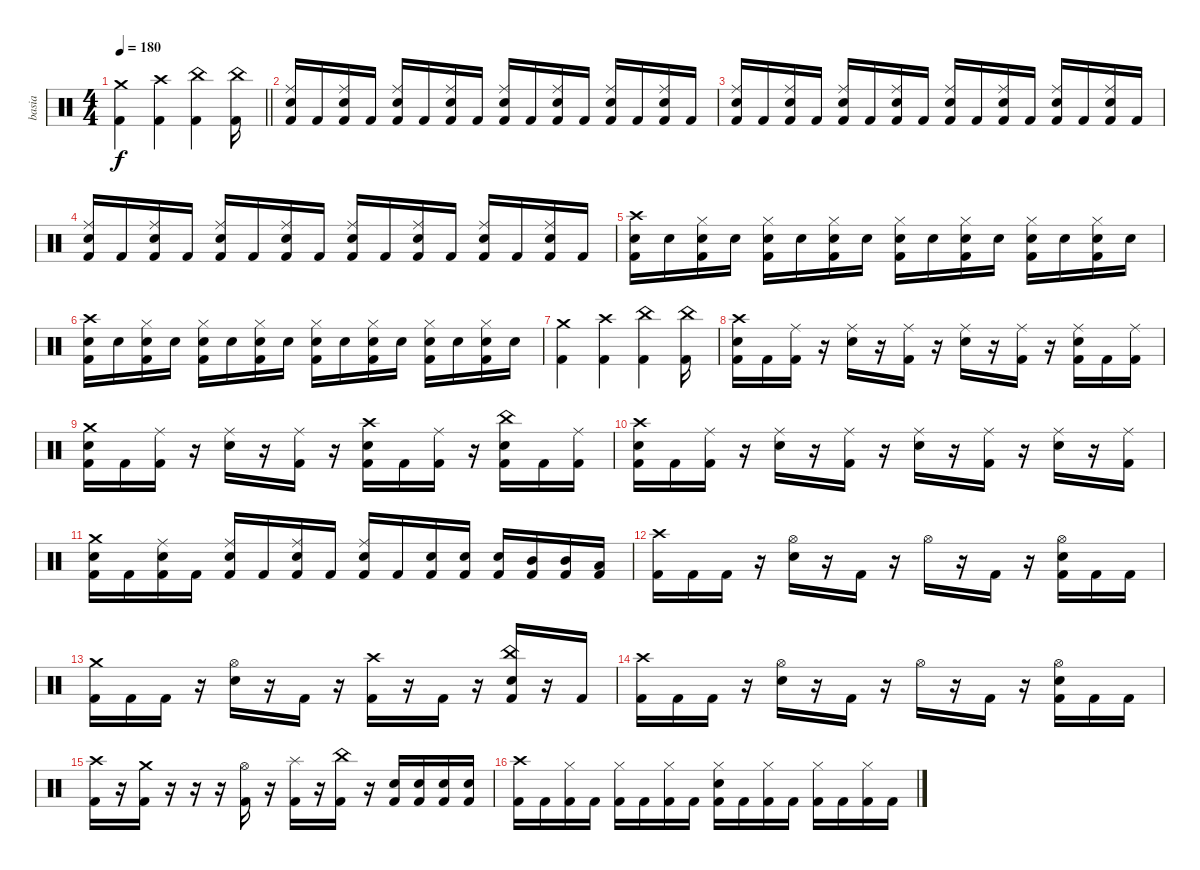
\track ("basia" "basia") {instrument percussion}
\staff {score}
\articulation defaults
\ts (4 4)
\tempo 180
\clef neutral
\barLineRight lightlight
\ks c
("Crash medium (hit)" "Kick (hit) 2").4{dy f} ("Crash high (hit)" "Kick (hit) 2").4 ("China (hit)" "Kick (hit) 2").4 ("China (hit)" "Kick (hit) 2").16 |
("Ride (middle)" "Snare (hit) 2" "Kick (hit) 2").16 "Kick (hit) 2".16 ("Ride (middle)" "Snare (hit) 2" "Kick (hit) 2").16 "Kick (hit) 2".16 ("Ride (middle)" "Snare (hit) 2" "Kick (hit) 2").16 "Kick (hit) 2".16 ("Ride (middle)" "Snare (hit) 2" "Kick (hit) 2").16 "Kick (hit) 2".16 ("Ride (middle)" "Snare (hit) 2" "Kick (hit) 2").16 "Kick (hit) 2".16 ("Ride (middle)" "Snare (hit) 2" "Kick (hit) 2").16 "Kick (hit) 2".16 ("Ride (middle)" "Snare (hit) 2" "Kick (hit) 2").16 "Kick (hit) 2".16 ("Ride (middle)" "Snare (hit) 2" "Kick (hit) 2").16 "Kick (hit) 2".16 |
("Ride (middle)" "Snare (hit) 2" "Kick (hit) 2").16 "Kick (hit) 2".16 ("Ride (middle)" "Snare (hit) 2" "Kick (hit) 2").16 "Kick (hit) 2".16 ("Ride (middle)" "Snare (hit) 2" "Kick (hit) 2").16 "Kick (hit) 2".16 ("Ride (middle)" "Snare (hit) 2" "Kick (hit) 2").16 "Kick (hit) 2".16 ("Ride (middle)" "Snare (hit) 2" "Kick (hit) 2").16 "Kick (hit) 2".16 ("Ride (middle)" "Snare (hit) 2" "Kick (hit) 2").16 "Kick (hit) 2".16 ("Ride (middle)" "Snare (hit) 2" "Kick (hit) 2").16 "Kick (hit) 2".16 ("Ride (middle)" "Snare (hit) 2" "Kick (hit) 2").16 "Kick (hit) 2".16 |
("Ride (middle)" "Snare (hit) 2" "Kick (hit) 2").16 "Kick (hit) 2".16 ("Ride (middle)" "Snare (hit) 2" "Kick (hit) 2").16 "Kick (hit) 2".16 ("Ride (middle)" "Snare (hit) 2" "Kick (hit) 2").16 "Kick (hit) 2".16 ("Ride (middle)" "Snare (hit) 2" "Kick (hit) 2").16 "Kick (hit) 2".16 ("Ride (middle)" "Snare (hit) 2" "Kick (hit) 2").16 "Kick (hit) 2".16 ("Ride (middle)" "Snare (hit) 2" "Kick (hit) 2").16 "Kick (hit) 2".16 ("Ride (middle)" "Snare (hit) 2" "Kick (hit) 2").16 "Kick (hit) 2".16 ("Ride (middle)" "Snare (hit) 2" "Kick (hit) 2").16 "Kick (hit) 2".16 |
("Crash high (hit)" "Snare (hit) 2" "Kick (hit) 2").16 "Snare (hit) 2".16 ("Hi-Hat (closed)" "Snare (hit) 2" "Kick (hit) 2").16 "Snare (hit) 2".16 ("Hi-Hat (closed)" "Snare (hit) 2" "Kick (hit) 2").16 "Snare (hit) 2".16 ("Hi-Hat (closed)" "Snare (hit) 2" "Kick (hit) 2").16 "Snare (hit) 2".16 ("Hi-Hat (closed)" "Snare (hit) 2" "Kick (hit) 2").16 "Snare (hit) 2".16 ("Hi-Hat (closed)" "Snare (hit) 2" "Kick (hit) 2").16 "Snare (hit) 2".16 ("Hi-Hat (closed)" "Snare (hit) 2" "Kick (hit) 2").16 "Snare (hit) 2".16 ("Hi-Hat (closed)" "Snare (hit) 2" "Kick (hit) 2").16 "Snare (hit) 2".16 |
("Crash high (hit)" "Snare (hit) 2" "Kick (hit) 2").16 "Snare (hit) 2".16 ("Hi-Hat (closed)" "Snare (hit) 2" "Kick (hit) 2").16 "Snare (hit) 2".16 ("Hi-Hat (closed)" "Snare (hit) 2" "Kick (hit) 2").16 "Snare (hit) 2".16 ("Hi-Hat (closed)" "Snare (hit) 2" "Kick (hit) 2").16 "Snare (hit) 2".16 ("Hi-Hat (closed)" "Snare (hit) 2" "Kick (hit) 2").16 "Snare (hit) 2".16 ("Hi-Hat (closed)" "Snare (hit) 2" "Kick (hit) 2").16 "Snare (hit) 2".16 ("Hi-Hat (closed)" "Snare (hit) 2" "Kick (hit) 2").16 "Snare (hit) 2".16 ("Hi-Hat (closed)" "Snare (hit) 2" "Kick (hit) 2").16 "Snare (hit) 2".16 |
("Crash medium (hit)" "Kick (hit) 2").4 ("Crash high (hit)" "Kick (hit) 2").4 ("China (hit)" "Kick (hit) 2").4 ("China (hit)" "Kick (hit) 2").16 |
("Crash high (hit)" "Snare (hit) 2" "Kick (hit) 2").16 "Kick (hit) 2".16 ("Ride (middle)" "Kick (hit) 2").16 r.16 ("Ride (middle)" "Snare (hit) 2").16 r.16 ("Ride (middle)" "Kick (hit) 2").16 r.16 ("Ride (middle)" "Snare (hit) 2").16 r.16 ("Ride (middle)" "Kick (hit) 2").16 r.16 ("Ride (middle)" "Snare (hit) 2" "Kick (hit) 2").16 "Kick (hit) 2".16 ("Ride (middle)" "Kick (hit) 2").16 |
("Crash medium (hit)" "Snare (hit) 2" "Kick (hit) 2").16 "Kick (hit) 2".16 ("Ride (middle)" "Kick (hit) 2").16 r.16 ("Ride (middle)" "Snare (hit) 2").16 r.16 ("Ride (middle)" "Kick (hit) 2").16 r.16 ("Crash high (hit)" "Snare (hit) 2" "Kick (hit) 2").16 "Kick (hit) 2".16 ("Ride (middle)" "Kick (hit) 2").16 r.16 ("China (hit)" "Snare (hit) 2" "Kick (hit) 2").16 "Kick (hit) 2".16 ("Ride (middle)" "Kick (hit) 2").16 |
("Crash high (hit)" "Snare (hit) 2" "Kick (hit) 2").16 "Kick (hit) 2".16 ("Ride (middle)" "Kick (hit) 2").16 r.16 ("Ride (middle)" "Snare (hit) 2").16 r.16 ("Ride (middle)" "Kick (hit) 2").16 r.16 ("Ride (middle)" "Snare (hit) 2").16 r.16 ("Ride (middle)" "Kick (hit) 2").16 r.16 ("Ride (middle)" "Snare (hit) 2").16 r.16 ("Ride (middle)" "Kick (hit) 2").16 |
("Crash medium (hit)" "Snare (hit) 2" "Kick (hit) 2").16 "Kick (hit) 2".16 ("Ride (middle)" "Snare (hit) 2" "Kick (hit) 2").16 "Kick (hit) 2".16 ("Ride (middle)" "Snare (hit) 2" "Kick (hit) 2").16 "Kick (hit) 2".16 ("Ride (middle)" "Snare (hit) 2" "Kick (hit) 2").16 "Kick (hit) 2".16 ("Ride (middle)" "Snare (hit) 2" "Kick (hit) 2").16 "Kick (hit) 2".16 ("Snare (hit) 2" "Kick (hit) 2").16 ("Snare (hit) 2" "Kick (hit) 2").16 ("Snare (hit) 2" "Kick (hit) 2").16 ("Mid Tom (hit)" "Kick (hit) 2").16 ("Mid Tom (hit)" "Kick (hit) 2").16 ("Low Tom (hit)" "Kick (hit) 2").16 |
("Crash high (hit)" "Kick (hit) 2").16 "Kick (hit) 2".16 "Kick (hit) 2".16 r.16 ("Hi-Hat (open)" "Snare (hit) 2").16 r.16 "Kick (hit) 2".16 r.16 "Hi-Hat (open)".16 r.16 "Kick (hit) 2".16 r.16 ("Hi-Hat (open)" "Snare (hit) 2" "Kick (hit) 2").16 "Kick (hit) 2".16 "Kick (hit) 2".16 |
("Crash medium (hit)" "Kick (hit) 2").16 "Kick (hit) 2".16 "Kick (hit) 2".16 r.16 ("Hi-Hat (open)" "Snare (hit) 2").16 r.16 "Kick (hit) 2".16 r.16 ("Crash high (hit)" "Kick (hit) 2").16 r.16 "Kick (hit) 2".16 r.16 ("China (hit)" "Snare (hit) 2" "Kick (hit) 2").16 r.16 "Kick (hit) 2".16 |
("Crash high (hit)" "Kick (hit) 2").16 "Kick (hit) 2".16 "Kick (hit) 2".16 r.16 ("Hi-Hat (open)" "Snare (hit) 2").16 r.16 "Kick (hit) 2".16 r.16 "Hi-Hat (open)".16 r.16 "Kick (hit) 2".16 r.16 ("Hi-Hat (open)" "Snare (hit) 2" "Kick (hit) 2").16 "Kick (hit) 2".16 "Kick (hit) 2".16 |
("Crash high (hit)" "Kick (hit) 2").16 r.16 ("Crash medium (hit)" "Kick (hit) 2").16 r.16 r.16 r.16 ("Hi-Hat (open)" "Kick (hit) 2").16 r.16 ("Splash (hit)" "Kick (hit) 2").16 r.16 ("China (hit)" "Kick (hit) 2").16 r.16 ("Snare (hit) 2" "Kick (hit) 2").16 ("Snare (hit) 2" "Kick (hit) 2").16 ("Snare (hit) 2" "Kick (hit) 2").16 ("Snare (hit) 2" "Kick (hit) 2").16 |
("Crash high (hit)" "Kick (hit) 2").16 "Kick (hit) 2".16 ("Hi-Hat (closed)" "Kick (hit) 2").16 "Kick (hit) 2".16 ("Hi-Hat (closed)" "Kick (hit) 2").16 "Kick (hit) 2".16 ("Hi-Hat (closed)" "Kick (hit) 2").16 "Kick (hit) 2".16 ("Hi-Hat (closed)" "Snare (hit) 2" "Kick (hit) 2").16 "Kick (hit) 2".16 ("Hi-Hat (closed)" "Kick (hit) 2").16 "Kick (hit) 2".16 ("Hi-Hat (closed)" "Kick (hit) 2").16 "Kick (hit) 2".16 ("Hi-Hat (closed)" "Kick (hit) 2").16 "Kick (hit) 2".16
